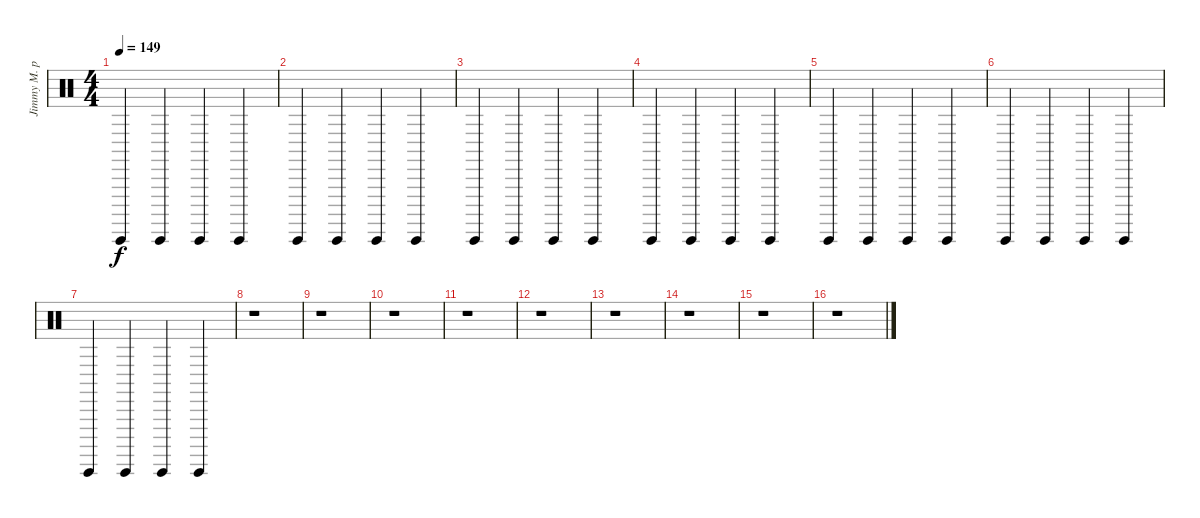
\track ("Jimmy M. percussion" "Jimmy M. p") {instrument percussion}
\staff {score}
\articulation defaults
\ts (4 4)
\tempo 149
\clef neutral
\ks c "Guiro (hit)".4{dy f} "Guiro (hit)".4 "Guiro (hit)".4 "Guiro (hit)".4
|
"Guiro (hit)".4 "Guiro (hit)".4 "Guiro (hit)".4 "Guiro (hit)".4 |
"Guiro (hit)".4 "Guiro (hit)".4 "Guiro (hit)".4 "Guiro (hit)".4 |
"Guiro (hit)".4 "Guiro (hit)".4 "Guiro (hit)".4 "Guiro (hit)".4 |
"Guiro (hit)".4 "Guiro (hit)".4 "Guiro (hit)".4 "Guiro (hit)".4 |
"Guiro (hit)".4 "Guiro (hit)".4 "Guiro (hit)".4 "Guiro (hit)".4 |
"Guiro (hit)".4 "Guiro (hit)".4 "Guiro (hit)".4 "Guiro (hit)".4 |
r.1 |
r.1 |
r.1 |
r.1 |
r.1 |
r.1 |
r.1 |
r.1 |
r.1
